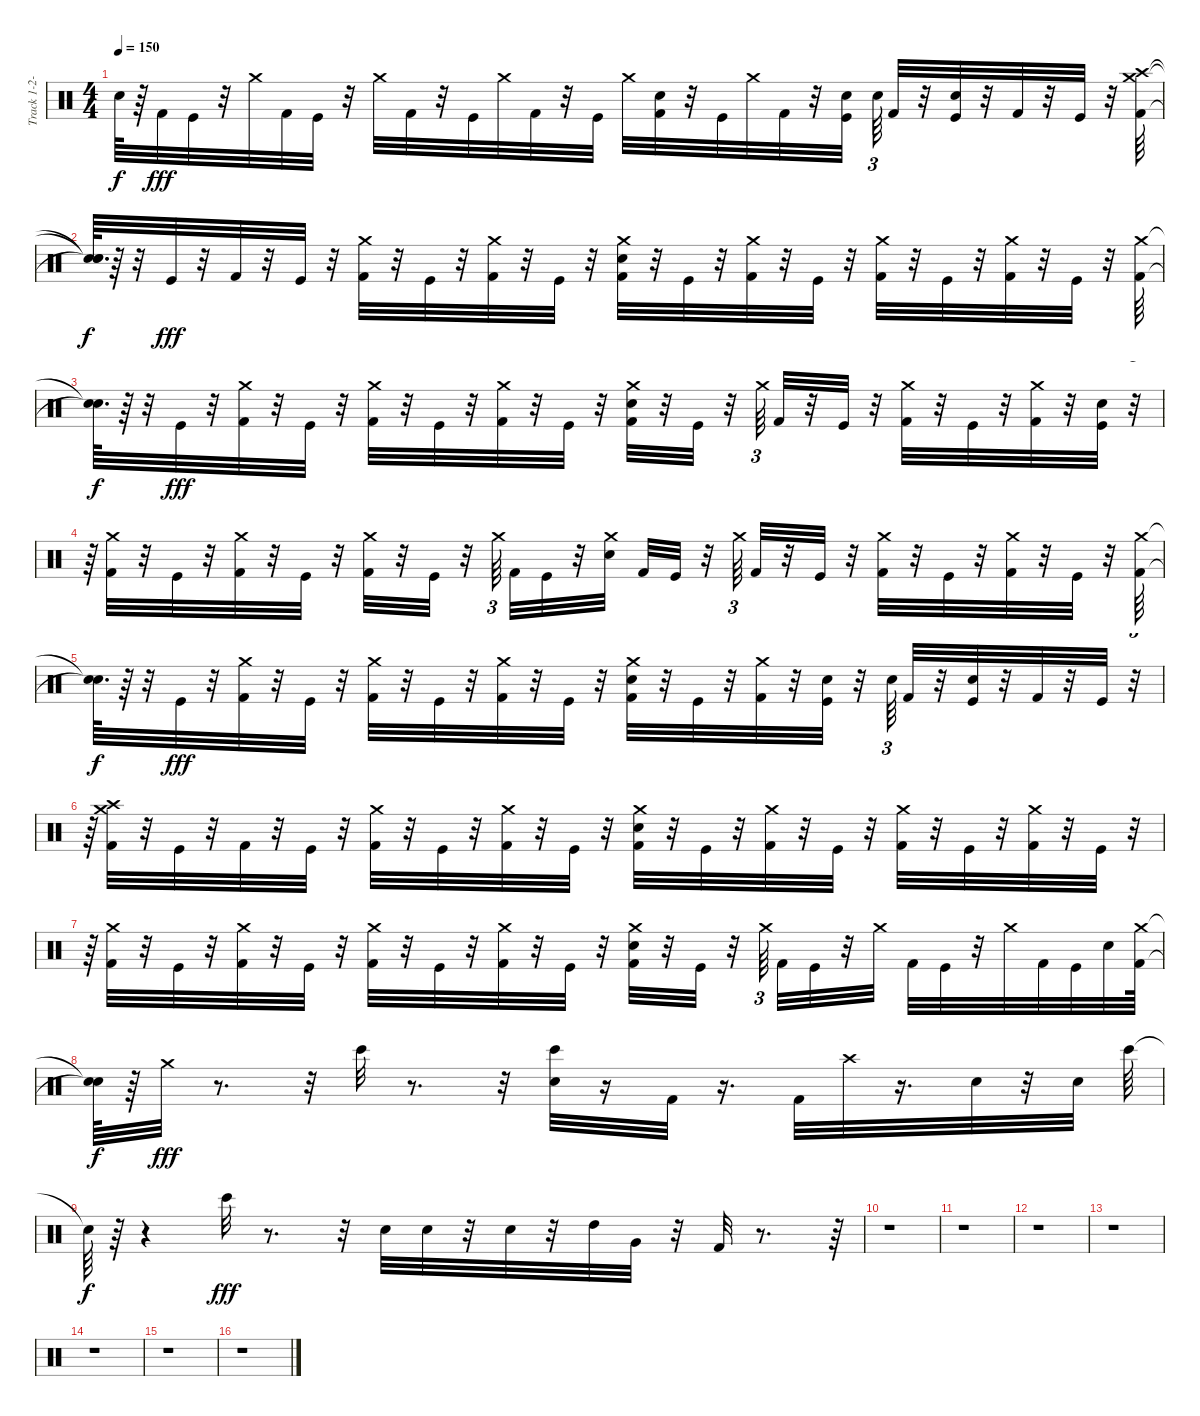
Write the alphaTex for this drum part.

\track ("Track 1-2-3-4-5-6-7-8-9-10-11-12-13-14-1" "Track 1-2-") {instrument percussion}
\staff {score}
\articulation defaults
\ts (4 4)
\tempo 150
\clef neutral
\ks c "Snare (hit)"{t}.64{dy f}
r.64 "Kick (hit) 2".32{dy fff} "Kick (hit)".32 r.32 "Crash medium (hit)".32 "Kick (hit) 2".32 "Kick (hit)".32 r.32 "Crash medium (hit)".32 "Kick (hit) 2".32 r.32 "Kick (hit)".32 "Crash medium (hit)".32 "Kick (hit) 2".32 r.32 "Kick (hit)".32 "Crash medium (hit)".32 ("Snare (hit) 2" "Kick (hit) 2").32 r.32 "Kick (hit)".32 "Crash medium (hit)".32 "Kick (hit) 2".32 r.32 ("Kick (hit)" "Snare (hit) 2").32 "Snare (hit) 2".64{tu (3 2)} "Kick (hit) 2".32 r.32 ("Snare (hit) 2" "Kick (hit)").32 r.32 "Kick (hit) 2".32 r.32 "Kick (hit)".32 r.32 ("Crash high (hit)" "Kick (hit) 2" "Crash medium (hit)").64 |
("Snare (hit)"{t} "Snare (hit)"{t} "Snare (hit)"{t}).64{d dy f} r.64 r.32 "Kick (hit)".32{dy fff} r.32 "Kick (hit) 2".32 r.32 "Kick (hit)".32 r.32 ("Kick (hit) 2" "Crash medium (hit)").32 r.32 "Kick (hit)".32 r.32 ("Kick (hit) 2" "Crash medium (hit)").32 r.32 "Kick (hit)".32 r.32 ("Kick (hit) 2" "Snare (hit) 2" "Crash medium (hit)").32 r.32 "Kick (hit)".32 r.32 ("Kick (hit) 2" "Crash medium (hit)").32 r.32 "Kick (hit)".32 r.32 ("Kick (hit) 2" "Crash medium (hit)").32 r.32 "Kick (hit)".32 r.32 ("Kick (hit) 2" "Crash medium (hit)").32 r.32 "Kick (hit)".32 r.32 ("Crash medium (hit)" "Kick (hit) 2").64 |
("Snare (hit)"{t} "Snare (hit)"{t}).64{d dy f} r.64 r.32 "Kick (hit)".32{dy fff} r.32 ("Crash medium (hit)" "Kick (hit) 2").32 r.32 "Kick (hit)".32 r.32 ("Crash medium (hit)" "Kick (hit) 2").32 r.32 "Kick (hit)".32 r.32 ("Crash medium (hit)" "Kick (hit) 2").32 r.32 "Kick (hit)".32 r.32 ("Crash medium (hit)" "Kick (hit) 2" "Snare (hit) 2").32 r.32 "Kick (hit)".32 r.32 "Crash medium (hit)".64{tu (3 2)} "Kick (hit) 2".32 r.32 "Kick (hit)".32 r.32 ("Crash medium (hit)" "Kick (hit) 2").32 r.32 "Kick (hit)".32 r.32 ("Crash medium (hit)" "Kick (hit) 2").32 r.32 ("Kick (hit)" "Snare (hit)").32 r.32{tu (5 4)} |
r.64 ("Crash medium (hit)" "Kick (hit) 2").32 r.32 "Kick (hit)".32 r.32 ("Crash medium (hit)" "Kick (hit) 2").32 r.32 "Kick (hit)".32 r.32 ("Crash medium (hit)" "Kick (hit) 2").32 r.32 "Kick (hit)".32 r.32 "Crash medium (hit)".64{tu (3 2) beam splitsecondary} "Kick (hit) 2".32 "Kick (hit)".32 r.32 ("Crash medium (hit)" "Snare (hit) 2").32 "Kick (hit) 2".32 "Kick (hit)".32 r.32 "Crash medium (hit)".64{tu (3 2)} "Kick (hit) 2".32 r.32 "Kick (hit)".32 r.32 ("Crash medium (hit)" "Kick (hit) 2").32 r.32 "Kick (hit)".32 r.32 ("Crash medium (hit)" "Kick (hit) 2").32 r.32 "Kick (hit)".32 r.32 ("Crash medium (hit)" "Kick (hit) 2").64 |
("Snare (hit)"{t} "Snare (hit)"{t}).64{d dy f} r.64 r.32 "Kick (hit)".32{dy fff} r.32 ("Crash medium (hit)" "Kick (hit) 2").32 r.32 "Kick (hit)".32 r.32 ("Crash medium (hit)" "Kick (hit) 2").32 r.32 "Kick (hit)".32 r.32 ("Crash medium (hit)" "Kick (hit) 2").32 r.32 "Kick (hit)".32 r.32 ("Crash medium (hit)" "Snare (hit) 2" "Kick (hit) 2").32 r.32 "Kick (hit)".32 r.32 ("Crash medium (hit)" "Kick (hit) 2").32 r.32 ("Kick (hit)" "Snare (hit) 2").32 r.32 "Snare (hit) 2".64{tu (3 2)} "Kick (hit) 2".32 r.32 ("Snare (hit) 2" "Kick (hit)").32 r.32 "Kick (hit) 2".32 r.32 "Kick (hit)".32 r.32{tu (5 4)} |
r.64 ("Crash high (hit)" "Kick (hit) 2" "Crash medium (hit)").32 r.32 "Kick (hit)".32 r.32 "Kick (hit) 2".32 r.32 "Kick (hit)".32 r.32 ("Kick (hit) 2" "Crash medium (hit)").32 r.32 "Kick (hit)".32 r.32 ("Kick (hit) 2" "Crash medium (hit)").32 r.32 "Kick (hit)".32 r.32 ("Kick (hit) 2" "Snare (hit) 2" "Crash medium (hit)").32 r.32 "Kick (hit)".32 r.32 ("Kick (hit) 2" "Crash medium (hit)").32 r.32 "Kick (hit)".32 r.32 ("Kick (hit) 2" "Crash medium (hit)").32 r.32 "Kick (hit)".32 r.32 ("Kick (hit) 2" "Crash medium (hit)").32 r.32 "Kick (hit)".32 r.32{tu (5 4)} |
r.64 ("Crash medium (hit)" "Kick (hit) 2").32 r.32 "Kick (hit)".32 r.32 ("Crash medium (hit)" "Kick (hit) 2").32 r.32 "Kick (hit)".32 r.32 ("Crash medium (hit)" "Kick (hit) 2").32 r.32 "Kick (hit)".32 r.32 ("Crash medium (hit)" "Kick (hit) 2").32 r.32 "Kick (hit)".32 r.32 ("Crash medium (hit)" "Kick (hit) 2" "Snare (hit) 2").32 r.32 "Kick (hit)".32 r.32 "Crash medium (hit)".64{tu (3 2) beam splitsecondary} "Kick (hit) 2".32 "Kick (hit)".32 r.32 "Crash medium (hit)".32 "Kick (hit) 2".32 "Kick (hit)".32 r.32 "Crash medium (hit)".32 "Kick (hit) 2".32 "Kick (hit)".32 "Snare (hit)".32 ("Crash medium (hit)" "Kick (hit) 2").64 |
("Snare (hit)"{t} "Snare (hit)"{t}).64{dy f} r.64 "Crash medium (hit)".32{dy fff} r.8{d} r.32 "Bongo High (hit)".32 r.8{d} r.32 ("Snare (hit) 2" "Bongo High (hit)").32 r.16 "Kick (hit) 2".32 r.16{d} "Kick (hit) 2".32 "Crash high (hit)".32 r.16{d} "Snare (hit) 2".32 r.32 "Snare (hit) 2".32 "Bongo High (hit)".64 |
"Snare (hit)"{t}.64{dy f} r.64 r.4 "Bongo High (hit)".32{dy fff} r.8{d} r.32 "Snare (hit) 2".32 "Snare (hit) 2".32 r.32 "Snare (hit) 2".32 r.32 "High Tom (hit)".32 "Very Low Tom (hit)".32 r.32 "Kick (hit) 2".32 r.8{d} r.64 |
r.1 |
r.1 |
r.1 |
r.1 |
r.1 |
r.1 |
r.1
